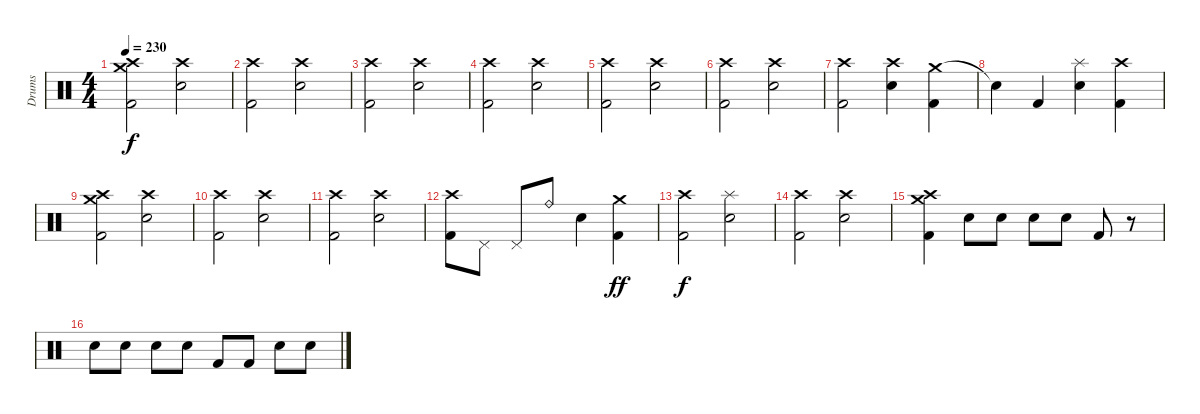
\track ("Drums" "Drums") {instrument percussion}
\staff {score}
\articulation defaults
\ts (4 4)
\tempo 230
\clef neutral
\ks c
("Crash medium (hit)" "Crash high (hit)" "Kick (hit) 2").2{dy f} ("Crash high (hit)" "Electric Snare (hit)").2 |
("Crash high (hit)" "Kick (hit) 2").2 ("Crash high (hit)" "Electric Snare (hit)").2 |
("Crash high (hit)" "Kick (hit) 2").2 ("Crash high (hit)" "Electric Snare (hit)").2 |
("Crash high (hit)" "Kick (hit) 2").2 ("Crash high (hit)" "Electric Snare (hit)").2 |
("Crash high (hit)" "Kick (hit) 2").2 ("Crash high (hit)" "Electric Snare (hit)").2 |
("Crash high (hit)" "Kick (hit) 2").2 ("Crash high (hit)" "Electric Snare (hit)").2 |
("Crash high (hit)" "Kick (hit) 2").2 ("Crash high (hit)" "Electric Snare (hit)").4 ("Crash medium (hit)" "Kick (hit) 2").4 |
"Snare (hit)"{t}.4 "Kick (hit) 2".4 ("Splash (hit)" "Electric Snare (hit)").4 ("Crash high (hit)" "Kick (hit) 2").4 |
("Crash medium (hit)" "Crash high (hit)" "Kick (hit) 2").2 ("Crash high (hit)" "Electric Snare (hit)").2 |
("Crash high (hit)" "Kick (hit) 2").2 ("Crash high (hit)" "Electric Snare (hit)").2 |
("Crash high (hit)" "Kick (hit) 2").2 ("Crash high (hit)" "Electric Snare (hit)").2 |
("Crash high (hit)" "Kick (hit) 2").8 "Pedal Hi-Hat (hit)".8 "Pedal Hi-Hat (hit)".8 "Ride (bell)".8 "Electric Snare (hit)".4 ("Crash medium (hit)" "Kick (hit) 2").4{dy ff} |
("Crash high (hit)" "Kick (hit) 2").2{dy f} ("Splash (hit)" "Electric Snare (hit)").2 |
("Crash high (hit)" "Kick (hit) 2").2 ("Crash high (hit)" "Electric Snare (hit)").2 |
("Crash medium (hit)" "Crash high (hit)" "Kick (hit) 2").4 "Electric Snare (hit)".8 "Electric Snare (hit)".8 "Electric Snare (hit)".8 "Electric Snare (hit)".8 "Kick (hit) 2".8 r.8 |
"Electric Snare (hit)".8 "Electric Snare (hit)".8 "Electric Snare (hit)".8 "Electric Snare (hit)".8 "Kick (hit) 2".8 "Kick (hit) 2".8 "Electric Snare (hit)".8 "Electric Snare (hit)".8
